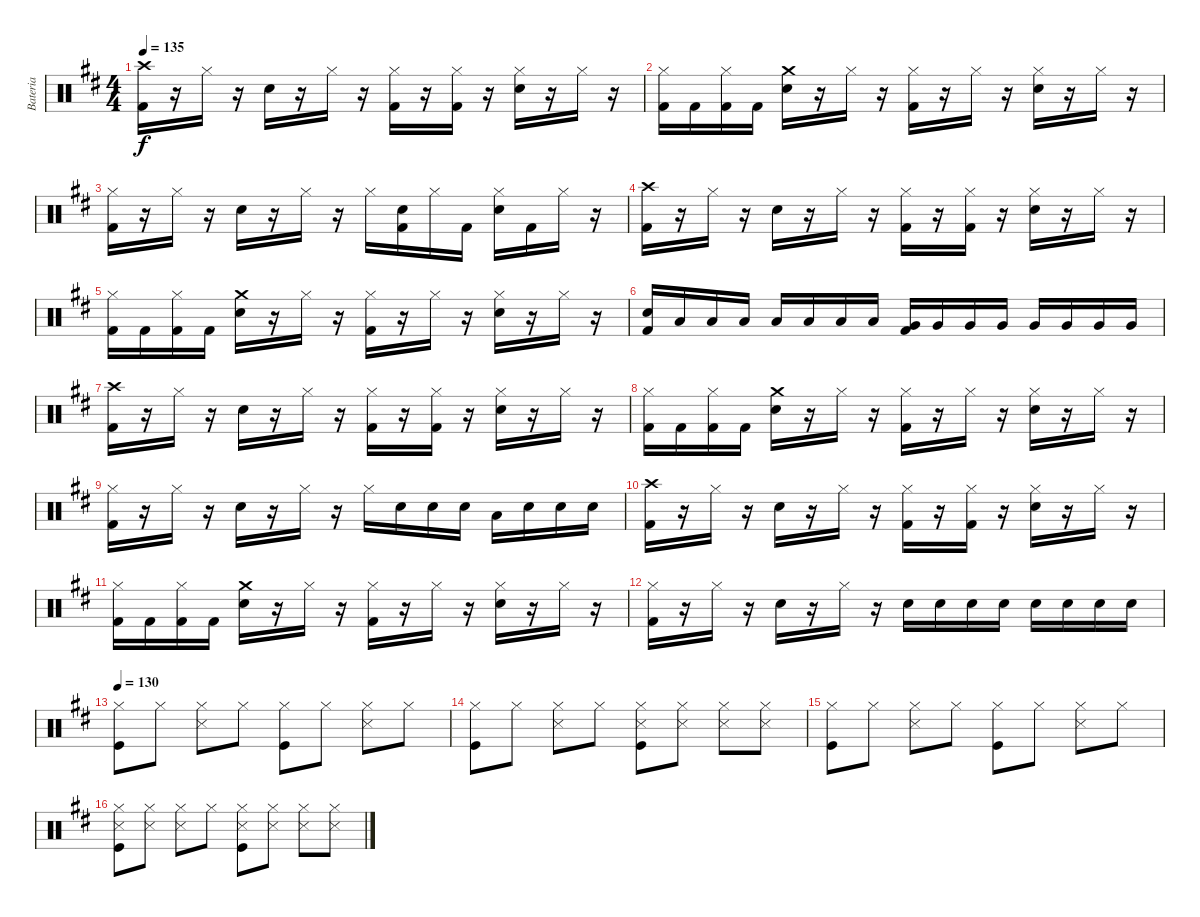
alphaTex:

\track ("Bateria" "Bateria") {instrument percussion}
\staff {score}
\articulation defaults
\ts (4 4)
\tempo 135
\clef neutral
\ks d
("Crash high (hit)" "Kick (hit) 2").16{dy f} r.16 "Hi-Hat (closed)".16 r.16 "Snare (hit) 2".16 r.16 "Hi-Hat (closed)".16 r.16 ("Hi-Hat (closed)" "Kick (hit) 2").16 r.16 ("Hi-Hat (closed)" "Kick (hit) 2").16 r.16 ("Hi-Hat (closed)" "Snare (hit) 2").16 r.16 "Hi-Hat (closed)".16 r.16 |
("Hi-Hat (closed)" "Kick (hit) 2").16 "Kick (hit) 2".16 ("Hi-Hat (closed)" "Kick (hit) 2").16 "Kick (hit) 2".16 ("Snare (hit) 2" "Crash medium (hit)").16 r.16 "Hi-Hat (closed)".16 r.16 ("Hi-Hat (closed)" "Kick (hit) 2").16 r.16 "Hi-Hat (closed)".16 r.16 ("Hi-Hat (closed)" "Snare (hit) 2").16 r.16 "Hi-Hat (closed)".16 r.16 |
("Hi-Hat (closed)" "Kick (hit) 2").16 r.16 "Hi-Hat (closed)".16 r.16 "Snare (hit) 2".16 r.16 "Hi-Hat (closed)".16 r.16 "Hi-Hat (closed)".16 ("Snare (hit) 2" "Kick (hit) 2").16 "Hi-Hat (closed)".16 "Kick (hit) 2".16 ("Hi-Hat (closed)" "Snare (hit) 2").16 "Kick (hit) 2".16 "Hi-Hat (closed)".16 r.16 |
("Crash high (hit)" "Kick (hit) 2").16 r.16 "Hi-Hat (closed)".16 r.16 "Snare (hit) 2".16 r.16 "Hi-Hat (closed)".16 r.16 ("Hi-Hat (closed)" "Kick (hit) 2").16 r.16 ("Hi-Hat (closed)" "Kick (hit) 2").16 r.16 ("Hi-Hat (closed)" "Snare (hit) 2").16 r.16 "Hi-Hat (closed)".16 r.16 |
("Hi-Hat (closed)" "Kick (hit) 2").16 "Kick (hit) 2".16 ("Hi-Hat (closed)" "Kick (hit) 2").16 "Kick (hit) 2".16 ("Snare (hit) 2" "Crash medium (hit)").16 r.16 "Hi-Hat (closed)".16 r.16 ("Hi-Hat (closed)" "Kick (hit) 2").16 r.16 "Hi-Hat (closed)".16 r.16 ("Hi-Hat (closed)" "Snare (hit) 2").16 r.16 "Hi-Hat (closed)".16 r.16 |
("Snare (hit) 2" "Kick (hit) 2").16 "Low Tom (hit)".16 "Low Tom (hit)".16 "Low Tom (hit)".16 "Low Tom (hit)".16 "Low Tom (hit)".16 "Low Tom (hit)".16 "Low Tom (hit)".16 ("Very Low Tom (hit)" "Kick (hit) 2").16 "Very Low Tom (hit)".16 "Very Low Tom (hit)".16 "Very Low Tom (hit)".16 "Very Low Tom (hit)".16 "Very Low Tom (hit)".16 "Very Low Tom (hit)".16 "Very Low Tom (hit)".16 |
("Crash high (hit)" "Kick (hit) 2").16 r.16 "Hi-Hat (closed)".16 r.16 "Snare (hit) 2".16 r.16 "Hi-Hat (closed)".16 r.16 ("Hi-Hat (closed)" "Kick (hit) 2").16 r.16 ("Hi-Hat (closed)" "Kick (hit) 2").16 r.16 ("Hi-Hat (closed)" "Snare (hit) 2").16 r.16 "Hi-Hat (closed)".16 r.16 |
("Hi-Hat (closed)" "Kick (hit) 2").16 "Kick (hit) 2".16 ("Hi-Hat (closed)" "Kick (hit) 2").16 "Kick (hit) 2".16 ("Snare (hit) 2" "Crash medium (hit)").16 r.16 "Hi-Hat (closed)".16 r.16 ("Hi-Hat (closed)" "Kick (hit) 2").16 r.16 "Hi-Hat (closed)".16 r.16 ("Hi-Hat (closed)" "Snare (hit) 2").16 r.16 "Hi-Hat (closed)".16 r.16 |
("Hi-Hat (closed)" "Kick (hit) 2").16 r.16 "Hi-Hat (closed)".16 r.16 "Snare (hit) 2".16 r.16 "Hi-Hat (closed)".16 r.16 "Hi-Hat (closed)".16 "Snare (hit) 2".16 "Snare (hit) 2".16 "Snare (hit) 2".16 "Low Tom (hit)".16 "Snare (hit) 2".16 "Snare (hit) 2".16 "Snare (hit) 2".16 |
("Crash high (hit)" "Kick (hit) 2").16 r.16 "Hi-Hat (closed)".16 r.16 "Snare (hit) 2".16 r.16 "Hi-Hat (closed)".16 r.16 ("Hi-Hat (closed)" "Kick (hit) 2").16 r.16 ("Hi-Hat (closed)" "Kick (hit) 2").16 r.16 ("Hi-Hat (closed)" "Snare (hit) 2").16 r.16 "Hi-Hat (closed)".16 r.16 |
("Hi-Hat (closed)" "Kick (hit) 2").16 "Kick (hit) 2".16 ("Hi-Hat (closed)" "Kick (hit) 2").16 "Kick (hit) 2".16 ("Snare (hit) 2" "Crash medium (hit)").16 r.16 "Hi-Hat (closed)".16 r.16 ("Hi-Hat (closed)" "Kick (hit) 2").16 r.16 "Hi-Hat (closed)".16 r.16 ("Hi-Hat (closed)" "Snare (hit) 2").16 r.16 "Hi-Hat (closed)".16 r.16 |
("Hi-Hat (closed)" "Kick (hit) 2").16 r.16 "Hi-Hat (closed)".16 r.16 "Snare (hit) 2".16 r.16 "Hi-Hat (closed)".16 r.16 "Snare (hit) 2".16 "Snare (hit) 2".16 "Snare (hit) 2".16 "Snare (hit) 2".16 "Snare (hit) 2".16 "Snare (hit) 2".16 "Snare (hit) 2".16 "Snare (hit) 2".16 |
\tempo 130
("Hi-Hat (closed)" "Kick (hit)").8 "Hi-Hat (closed)".8 ("Hi-Hat (closed)" "Metronome (hit)").8 "Hi-Hat (closed)".8 ("Hi-Hat (closed)" "Kick (hit)").8 "Hi-Hat (closed)".8 ("Hi-Hat (closed)" "Metronome (hit)").8 "Hi-Hat (closed)".8 |
("Hi-Hat (closed)" "Kick (hit)").8 "Hi-Hat (closed)".8 ("Hi-Hat (closed)" "Metronome (hit)").8 "Hi-Hat (closed)".8 ("Hi-Hat (closed)" "Metronome (hit)" "Kick (hit)").8 ("Hi-Hat (closed)" "Metronome (hit)").8 ("Hi-Hat (closed)" "Metronome (hit)").8 ("Hi-Hat (closed)" "Metronome (hit)").8 |
("Hi-Hat (closed)" "Kick (hit)").8 "Hi-Hat (closed)".8 ("Hi-Hat (closed)" "Metronome (hit)").8 "Hi-Hat (closed)".8 ("Hi-Hat (closed)" "Kick (hit)").8 "Hi-Hat (closed)".8 ("Hi-Hat (closed)" "Metronome (hit)").8 "Hi-Hat (closed)".8 |
("Hi-Hat (closed)" "Metronome (hit)" "Kick (hit)").8 ("Hi-Hat (closed)" "Metronome (hit)").8 ("Hi-Hat (closed)" "Metronome (hit)").8 "Hi-Hat (closed)".8 ("Hi-Hat (closed)" "Metronome (hit)" "Kick (hit)").8 ("Hi-Hat (closed)" "Metronome (hit)").8 ("Hi-Hat (closed)" "Metronome (hit)").8 ("Hi-Hat (closed)" "Metronome (hit)").8
